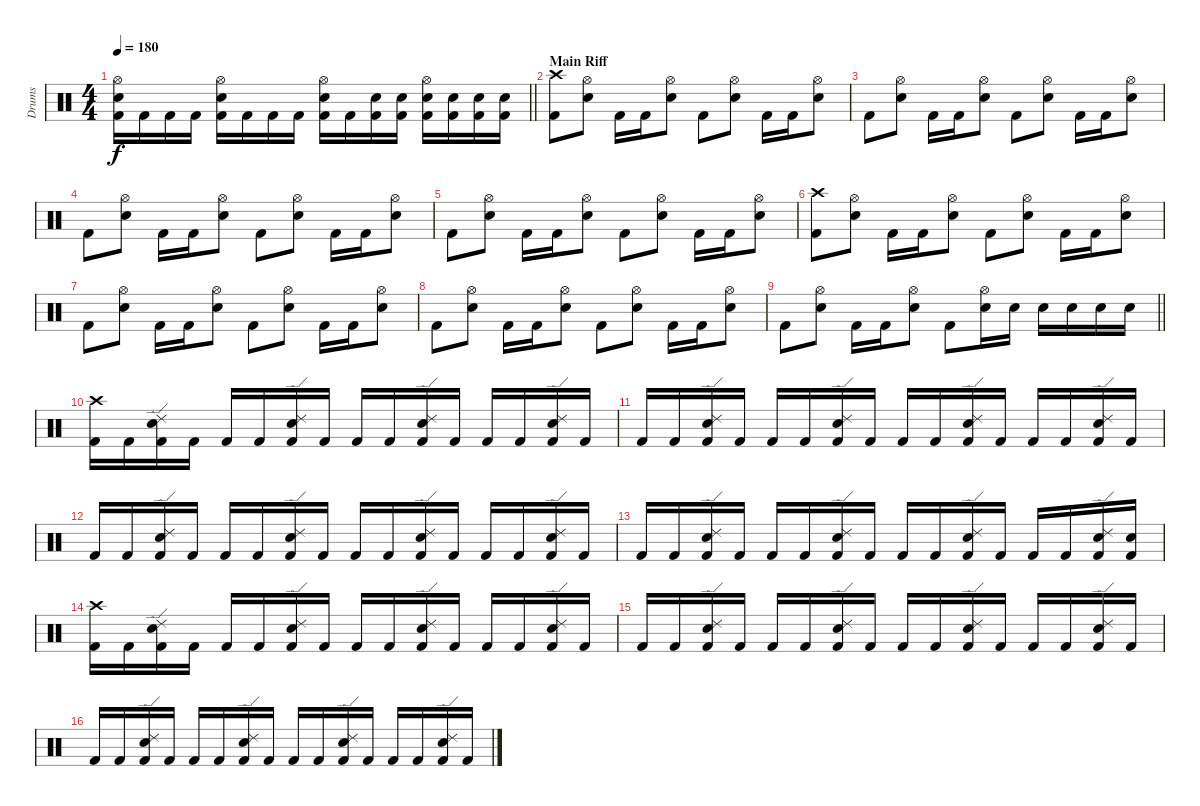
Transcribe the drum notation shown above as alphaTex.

\track ("Drums" "Drums") {instrument percussion}
\staff {score}
\articulation defaults
\ts (4 4)
\tempo 180
\clef neutral
\barLineRight lightlight
\ks c
("Hi-Hat (open)" "Electric Snare (hit)" "Kick (hit) 2").16{dy f} "Kick (hit) 2".16 "Kick (hit) 2".16 "Kick (hit) 2".16 ("Hi-Hat (open)" "Electric Snare (hit)" "Kick (hit) 2").16 "Kick (hit) 2".16 "Kick (hit) 2".16 "Kick (hit) 2".16 ("Hi-Hat (open)" "Electric Snare (hit)" "Kick (hit) 2").16 "Kick (hit) 2".16 ("Electric Snare (hit)" "Kick (hit) 2").16 ("Electric Snare (hit)" "Kick (hit) 2").16 ("Hi-Hat (open)" "Electric Snare (hit)" "Kick (hit) 2").16 ("Electric Snare (hit)" "Kick (hit) 2").16 ("Electric Snare (hit)" "Kick (hit) 2").16 ("Electric Snare (hit)" "Kick (hit) 2").16 |
\section ("" "Main Riff")
("Crash high (hit)" "Kick (hit) 2").8 ("Hi-Hat (open)" "Electric Snare (hit)").8 "Kick (hit) 2".16 "Kick (hit) 2".16 ("Hi-Hat (open)" "Electric Snare (hit)").8 "Kick (hit) 2".8 ("Hi-Hat (open)" "Electric Snare (hit)").8 "Kick (hit) 2".16 "Kick (hit) 2".16 ("Hi-Hat (open)" "Electric Snare (hit)").8 |
"Kick (hit) 2".8 ("Hi-Hat (open)" "Electric Snare (hit)").8 "Kick (hit) 2".16 "Kick (hit) 2".16 ("Hi-Hat (open)" "Electric Snare (hit)").8 "Kick (hit) 2".8 ("Hi-Hat (open)" "Electric Snare (hit)").8 "Kick (hit) 2".16 "Kick (hit) 2".16 ("Hi-Hat (open)" "Electric Snare (hit)").8 |
"Kick (hit) 2".8 ("Hi-Hat (open)" "Electric Snare (hit)").8 "Kick (hit) 2".16 "Kick (hit) 2".16 ("Hi-Hat (open)" "Electric Snare (hit)").8 "Kick (hit) 2".8 ("Hi-Hat (open)" "Electric Snare (hit)").8 "Kick (hit) 2".16 "Kick (hit) 2".16 ("Hi-Hat (open)" "Electric Snare (hit)").8 |
"Kick (hit) 2".8 ("Hi-Hat (open)" "Electric Snare (hit)").8 "Kick (hit) 2".16 "Kick (hit) 2".16 ("Hi-Hat (open)" "Electric Snare (hit)").8 "Kick (hit) 2".8 ("Hi-Hat (open)" "Electric Snare (hit)").8 "Kick (hit) 2".16 "Kick (hit) 2".16 ("Hi-Hat (open)" "Electric Snare (hit)").8 |
("Crash high (hit)" "Kick (hit) 2").8 ("Hi-Hat (open)" "Electric Snare (hit)").8 "Kick (hit) 2".16 "Kick (hit) 2".16 ("Hi-Hat (open)" "Electric Snare (hit)").8 "Kick (hit) 2".8 ("Hi-Hat (open)" "Electric Snare (hit)").8 "Kick (hit) 2".16 "Kick (hit) 2".16 ("Hi-Hat (open)" "Electric Snare (hit)").8 |
"Kick (hit) 2".8 ("Hi-Hat (open)" "Electric Snare (hit)").8 "Kick (hit) 2".16 "Kick (hit) 2".16 ("Hi-Hat (open)" "Electric Snare (hit)").8 "Kick (hit) 2".8 ("Hi-Hat (open)" "Electric Snare (hit)").8 "Kick (hit) 2".16 "Kick (hit) 2".16 ("Hi-Hat (open)" "Electric Snare (hit)").8 |
"Kick (hit) 2".8 ("Hi-Hat (open)" "Electric Snare (hit)").8 "Kick (hit) 2".16 "Kick (hit) 2".16 ("Hi-Hat (open)" "Electric Snare (hit)").8 "Kick (hit) 2".8 ("Hi-Hat (open)" "Electric Snare (hit)").8 "Kick (hit) 2".16 "Kick (hit) 2".16 ("Hi-Hat (open)" "Electric Snare (hit)").8 |
\barLineRight lightlight "Kick (hit) 2".8
("Hi-Hat (open)" "Electric Snare (hit)").8 "Kick (hit) 2".16 "Kick (hit) 2".16 ("Hi-Hat (open)" "Electric Snare (hit)").8 "Kick (hit) 2".8 ("Hi-Hat (open)" "Electric Snare (hit)").16 "Electric Snare (hit)".16 "Electric Snare (hit)".16 "Electric Snare (hit)".16 "Electric Snare (hit)".16 "Electric Snare (hit)".16 |
\section ("" "")
("Crash high (hit)" "Kick (hit) 2").16 "Kick (hit) 2".16 ("Ride (edge) 2" "Electric Snare (hit)" "Kick (hit) 2").16 "Kick (hit) 2".16 "Kick (hit) 2".16 "Kick (hit) 2".16 ("Ride (edge) 2" "Electric Snare (hit)" "Kick (hit) 2").16 "Kick (hit) 2".16 "Kick (hit) 2".16 "Kick (hit) 2".16 ("Ride (edge) 2" "Electric Snare (hit)" "Kick (hit) 2").16 "Kick (hit) 2".16 "Kick (hit) 2".16 "Kick (hit) 2".16 ("Ride (edge) 2" "Electric Snare (hit)" "Kick (hit) 2").16 "Kick (hit) 2".16 |
"Kick (hit) 2".16 "Kick (hit) 2".16 ("Ride (edge) 2" "Electric Snare (hit)" "Kick (hit) 2").16 "Kick (hit) 2".16 "Kick (hit) 2".16 "Kick (hit) 2".16 ("Ride (edge) 2" "Electric Snare (hit)" "Kick (hit) 2").16 "Kick (hit) 2".16 "Kick (hit) 2".16 "Kick (hit) 2".16 ("Ride (edge) 2" "Electric Snare (hit)" "Kick (hit) 2").16 "Kick (hit) 2".16 "Kick (hit) 2".16 "Kick (hit) 2".16 ("Ride (edge) 2" "Electric Snare (hit)" "Kick (hit) 2").16 "Kick (hit) 2".16 |
"Kick (hit) 2".16 "Kick (hit) 2".16 ("Ride (edge) 2" "Electric Snare (hit)" "Kick (hit) 2").16 "Kick (hit) 2".16 "Kick (hit) 2".16 "Kick (hit) 2".16 ("Ride (edge) 2" "Electric Snare (hit)" "Kick (hit) 2").16 "Kick (hit) 2".16 "Kick (hit) 2".16 "Kick (hit) 2".16 ("Ride (edge) 2" "Electric Snare (hit)" "Kick (hit) 2").16 "Kick (hit) 2".16 "Kick (hit) 2".16 "Kick (hit) 2".16 ("Ride (edge) 2" "Electric Snare (hit)" "Kick (hit) 2").16 "Kick (hit) 2".16 |
"Kick (hit) 2".16 "Kick (hit) 2".16 ("Ride (edge) 2" "Electric Snare (hit)" "Kick (hit) 2").16 "Kick (hit) 2".16 "Kick (hit) 2".16 "Kick (hit) 2".16 ("Ride (edge) 2" "Electric Snare (hit)" "Kick (hit) 2").16 "Kick (hit) 2".16 "Kick (hit) 2".16 "Kick (hit) 2".16 ("Ride (edge) 2" "Electric Snare (hit)" "Kick (hit) 2").16 "Kick (hit) 2".16 "Kick (hit) 2".16 "Kick (hit) 2".16 ("Ride (edge) 2" "Electric Snare (hit)" "Kick (hit) 2").16 ("Electric Snare (hit)" "Kick (hit) 2").16 |
("Crash high (hit)" "Kick (hit) 2").16 "Kick (hit) 2".16 ("Ride (edge) 2" "Electric Snare (hit)" "Kick (hit) 2").16 "Kick (hit) 2".16 "Kick (hit) 2".16 "Kick (hit) 2".16 ("Ride (edge) 2" "Electric Snare (hit)" "Kick (hit) 2").16 "Kick (hit) 2".16 "Kick (hit) 2".16 "Kick (hit) 2".16 ("Ride (edge) 2" "Electric Snare (hit)" "Kick (hit) 2").16 "Kick (hit) 2".16 "Kick (hit) 2".16 "Kick (hit) 2".16 ("Ride (edge) 2" "Electric Snare (hit)" "Kick (hit) 2").16 "Kick (hit) 2".16 |
"Kick (hit) 2".16 "Kick (hit) 2".16 ("Ride (edge) 2" "Electric Snare (hit)" "Kick (hit) 2").16 "Kick (hit) 2".16 "Kick (hit) 2".16 "Kick (hit) 2".16 ("Ride (edge) 2" "Electric Snare (hit)" "Kick (hit) 2").16 "Kick (hit) 2".16 "Kick (hit) 2".16 "Kick (hit) 2".16 ("Ride (edge) 2" "Electric Snare (hit)" "Kick (hit) 2").16 "Kick (hit) 2".16 "Kick (hit) 2".16 "Kick (hit) 2".16 ("Ride (edge) 2" "Electric Snare (hit)" "Kick (hit) 2").16 "Kick (hit) 2".16 |
"Kick (hit) 2".16 "Kick (hit) 2".16 ("Ride (edge) 2" "Electric Snare (hit)" "Kick (hit) 2").16 "Kick (hit) 2".16 "Kick (hit) 2".16 "Kick (hit) 2".16 ("Ride (edge) 2" "Electric Snare (hit)" "Kick (hit) 2").16 "Kick (hit) 2".16 "Kick (hit) 2".16 "Kick (hit) 2".16 ("Ride (edge) 2" "Electric Snare (hit)" "Kick (hit) 2").16 "Kick (hit) 2".16 "Kick (hit) 2".16 "Kick (hit) 2".16 ("Ride (edge) 2" "Electric Snare (hit)" "Kick (hit) 2").16 "Kick (hit) 2".16
